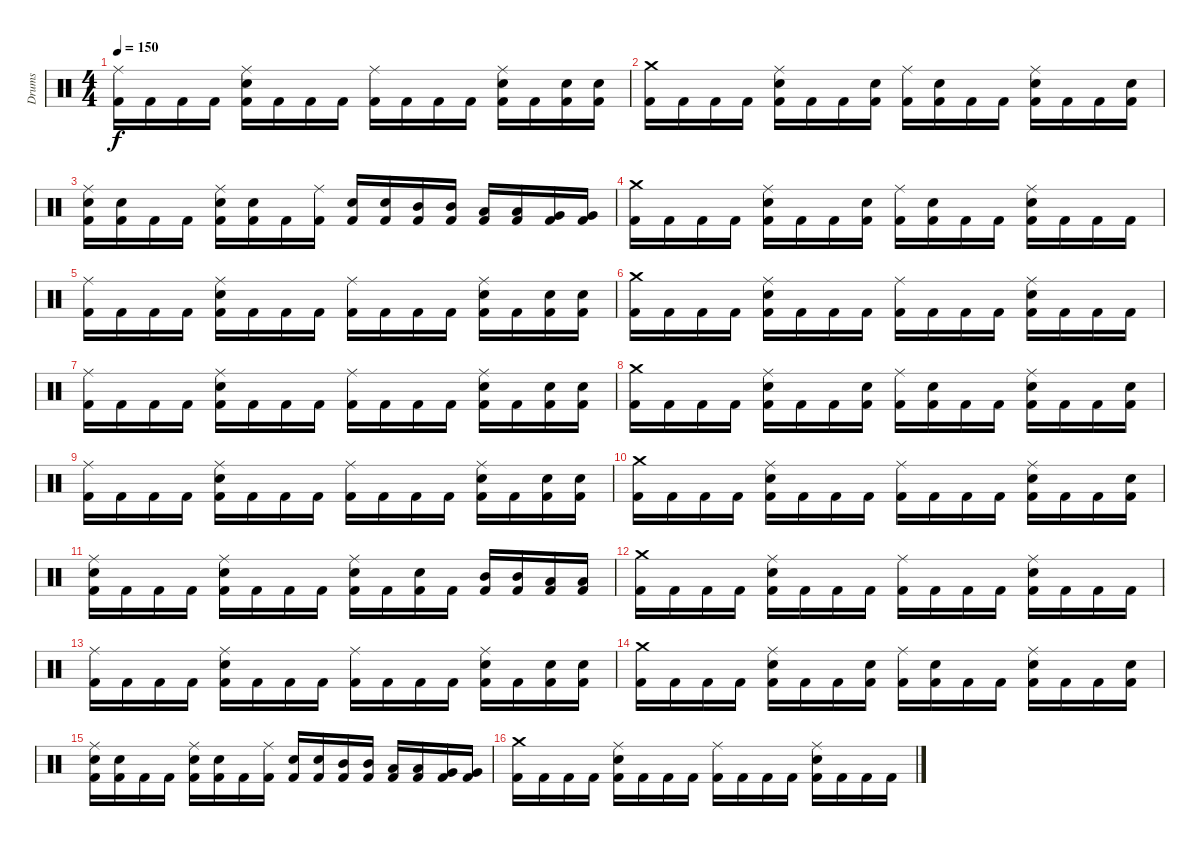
\track ("Drums" "Drums") {instrument percussion}
\staff {score}
\articulation defaults
\ts (4 4)
\tempo 150
\clef neutral
\ks c
("Ride (middle)" "Kick (hit) 2").16{dy f} "Kick (hit) 2".16 "Kick (hit) 2".16 "Kick (hit) 2".16 ("Ride (middle)" "Electric Snare (hit)" "Kick (hit) 2").16 "Kick (hit) 2".16 "Kick (hit) 2".16 "Kick (hit) 2".16 ("Ride (middle)" "Kick (hit) 2").16 "Kick (hit) 2".16 "Kick (hit) 2".16 "Kick (hit) 2".16 ("Ride (middle)" "Electric Snare (hit)" "Kick (hit) 2").16 "Kick (hit) 2".16 ("Electric Snare (hit)" "Kick (hit) 2").16 ("Electric Snare (hit)" "Kick (hit) 2").16 |
("Crash medium (hit)" "Kick (hit) 2").16 "Kick (hit) 2".16 "Kick (hit) 2".16 "Kick (hit) 2".16 ("Ride (middle)" "Electric Snare (hit)" "Kick (hit) 2").16 "Kick (hit) 2".16 "Kick (hit) 2".16 ("Electric Snare (hit)" "Kick (hit) 2").16 ("Ride (middle)" "Kick (hit) 2").16 ("Electric Snare (hit)" "Kick (hit) 2").16 "Kick (hit) 2".16 "Kick (hit) 2".16 ("Ride (middle)" "Electric Snare (hit)" "Kick (hit) 2").16 "Kick (hit) 2".16 "Kick (hit) 2".16 ("Electric Snare (hit)" "Kick (hit) 2").16 |
("Ride (middle)" "Electric Snare (hit)" "Kick (hit) 2").16 ("Electric Snare (hit)" "Kick (hit) 2").16 "Kick (hit) 2".16 "Kick (hit) 2".16 ("Ride (middle)" "Electric Snare (hit)" "Kick (hit) 2").16 ("Electric Snare (hit)" "Kick (hit) 2").16 "Kick (hit) 2".16 ("Ride (middle)" "Kick (hit) 2").16 ("Electric Snare (hit)" "Kick (hit) 2").16 ("Electric Snare (hit)" "Kick (hit) 2").16 ("Mid Tom (hit)" "Kick (hit) 2").16 ("Mid Tom (hit)" "Kick (hit) 2").16 ("Low Tom (hit)" "Kick (hit) 2").16 ("Low Tom (hit)" "Kick (hit) 2").16 ("Very Low Tom (hit)" "Kick (hit) 2").16 ("Very Low Tom (hit)" "Kick (hit) 2").16 |
("Crash medium (hit)" "Kick (hit) 2").16 "Kick (hit) 2".16 "Kick (hit) 2".16 "Kick (hit) 2".16 ("Ride (middle)" "Electric Snare (hit)" "Kick (hit) 2").16 "Kick (hit) 2".16 "Kick (hit) 2".16 ("Electric Snare (hit)" "Kick (hit) 2").16 ("Ride (middle)" "Kick (hit) 2").16 ("Electric Snare (hit)" "Kick (hit) 2").16 "Kick (hit) 2".16 "Kick (hit) 2".16 ("Ride (middle)" "Electric Snare (hit)" "Kick (hit) 2").16 "Kick (hit) 2".16 "Kick (hit) 2".16 "Kick (hit) 2".16 |
("Ride (middle)" "Kick (hit) 2").16 "Kick (hit) 2".16 "Kick (hit) 2".16 "Kick (hit) 2".16 ("Ride (middle)" "Electric Snare (hit)" "Kick (hit) 2").16 "Kick (hit) 2".16 "Kick (hit) 2".16 "Kick (hit) 2".16 ("Ride (middle)" "Kick (hit) 2").16 "Kick (hit) 2".16 "Kick (hit) 2".16 "Kick (hit) 2".16 ("Ride (middle)" "Electric Snare (hit)" "Kick (hit) 2").16 "Kick (hit) 2".16 ("Electric Snare (hit)" "Kick (hit) 2").16 ("Electric Snare (hit)" "Kick (hit) 2").16 |
("Crash medium (hit)" "Kick (hit) 2").16 "Kick (hit) 2".16 "Kick (hit) 2".16 "Kick (hit) 2".16 ("Ride (middle)" "Electric Snare (hit)" "Kick (hit) 2").16 "Kick (hit) 2".16 "Kick (hit) 2".16 "Kick (hit) 2".16 ("Ride (middle)" "Kick (hit) 2").16 "Kick (hit) 2".16 "Kick (hit) 2".16 "Kick (hit) 2".16 ("Ride (middle)" "Electric Snare (hit)" "Kick (hit) 2").16 "Kick (hit) 2".16 "Kick (hit) 2".16 "Kick (hit) 2".16 |
("Ride (middle)" "Kick (hit) 2").16 "Kick (hit) 2".16 "Kick (hit) 2".16 "Kick (hit) 2".16 ("Ride (middle)" "Electric Snare (hit)" "Kick (hit) 2").16 "Kick (hit) 2".16 "Kick (hit) 2".16 "Kick (hit) 2".16 ("Ride (middle)" "Kick (hit) 2").16 "Kick (hit) 2".16 "Kick (hit) 2".16 "Kick (hit) 2".16 ("Ride (middle)" "Electric Snare (hit)" "Kick (hit) 2").16 "Kick (hit) 2".16 ("Electric Snare (hit)" "Kick (hit) 2").16 ("Electric Snare (hit)" "Kick (hit) 2").16 |
("Crash medium (hit)" "Kick (hit) 2").16 "Kick (hit) 2".16 "Kick (hit) 2".16 "Kick (hit) 2".16 ("Ride (middle)" "Electric Snare (hit)" "Kick (hit) 2").16 "Kick (hit) 2".16 "Kick (hit) 2".16 ("Electric Snare (hit)" "Kick (hit) 2").16 ("Ride (middle)" "Kick (hit) 2").16 ("Electric Snare (hit)" "Kick (hit) 2").16 "Kick (hit) 2".16 "Kick (hit) 2".16 ("Ride (middle)" "Electric Snare (hit)" "Kick (hit) 2").16 "Kick (hit) 2".16 "Kick (hit) 2".16 ("Electric Snare (hit)" "Kick (hit) 2").16 |
("Ride (middle)" "Kick (hit) 2").16 "Kick (hit) 2".16 "Kick (hit) 2".16 "Kick (hit) 2".16 ("Ride (middle)" "Electric Snare (hit)" "Kick (hit) 2").16 "Kick (hit) 2".16 "Kick (hit) 2".16 "Kick (hit) 2".16 ("Ride (middle)" "Kick (hit) 2").16 "Kick (hit) 2".16 "Kick (hit) 2".16 "Kick (hit) 2".16 ("Ride (middle)" "Electric Snare (hit)" "Kick (hit) 2").16 "Kick (hit) 2".16 ("Electric Snare (hit)" "Kick (hit) 2").16 ("Electric Snare (hit)" "Kick (hit) 2").16 |
("Crash medium (hit)" "Kick (hit) 2").16 "Kick (hit) 2".16 "Kick (hit) 2".16 "Kick (hit) 2".16 ("Ride (middle)" "Electric Snare (hit)" "Kick (hit) 2").16 "Kick (hit) 2".16 "Kick (hit) 2".16 "Kick (hit) 2".16 ("Ride (middle)" "Kick (hit) 2").16 "Kick (hit) 2".16 "Kick (hit) 2".16 "Kick (hit) 2".16 ("Ride (middle)" "Electric Snare (hit)" "Kick (hit) 2").16 "Kick (hit) 2".16 "Kick (hit) 2".16 ("Electric Snare (hit)" "Kick (hit) 2").16 |
("Ride (middle)" "Electric Snare (hit)" "Kick (hit) 2").16 "Kick (hit) 2".16 "Kick (hit) 2".16 "Kick (hit) 2".16 ("Ride (middle)" "Electric Snare (hit)" "Kick (hit) 2").16 "Kick (hit) 2".16 "Kick (hit) 2".16 "Kick (hit) 2".16 ("Ride (middle)" "Electric Snare (hit)" "Kick (hit) 2").16 "Kick (hit) 2".16 ("Electric Snare (hit)" "Kick (hit) 2").16 "Kick (hit) 2".16 ("Mid Tom (hit)" "Kick (hit) 2").16 ("Mid Tom (hit)" "Kick (hit) 2").16 ("Low Tom (hit)" "Kick (hit) 2").16 ("Low Tom (hit)" "Kick (hit) 2").16 |
\section ("" "")
("Crash medium (hit)" "Kick (hit) 2").16 "Kick (hit) 2".16 "Kick (hit) 2".16 "Kick (hit) 2".16 ("Ride (middle)" "Electric Snare (hit)" "Kick (hit) 2").16 "Kick (hit) 2".16 "Kick (hit) 2".16 "Kick (hit) 2".16 ("Ride (middle)" "Kick (hit) 2").16 "Kick (hit) 2".16 "Kick (hit) 2".16 "Kick (hit) 2".16 ("Ride (middle)" "Electric Snare (hit)" "Kick (hit) 2").16 "Kick (hit) 2".16 "Kick (hit) 2".16 "Kick (hit) 2".16 |
("Ride (middle)" "Kick (hit) 2").16 "Kick (hit) 2".16 "Kick (hit) 2".16 "Kick (hit) 2".16 ("Ride (middle)" "Electric Snare (hit)" "Kick (hit) 2").16 "Kick (hit) 2".16 "Kick (hit) 2".16 "Kick (hit) 2".16 ("Ride (middle)" "Kick (hit) 2").16 "Kick (hit) 2".16 "Kick (hit) 2".16 "Kick (hit) 2".16 ("Ride (middle)" "Electric Snare (hit)" "Kick (hit) 2").16 "Kick (hit) 2".16 ("Electric Snare (hit)" "Kick (hit) 2").16 ("Electric Snare (hit)" "Kick (hit) 2").16 |
("Crash medium (hit)" "Kick (hit) 2").16 "Kick (hit) 2".16 "Kick (hit) 2".16 "Kick (hit) 2".16 ("Ride (middle)" "Electric Snare (hit)" "Kick (hit) 2").16 "Kick (hit) 2".16 "Kick (hit) 2".16 ("Electric Snare (hit)" "Kick (hit) 2").16 ("Ride (middle)" "Kick (hit) 2").16 ("Electric Snare (hit)" "Kick (hit) 2").16 "Kick (hit) 2".16 "Kick (hit) 2".16 ("Ride (middle)" "Electric Snare (hit)" "Kick (hit) 2").16 "Kick (hit) 2".16 "Kick (hit) 2".16 ("Electric Snare (hit)" "Kick (hit) 2").16 |
("Ride (middle)" "Electric Snare (hit)" "Kick (hit) 2").16 ("Electric Snare (hit)" "Kick (hit) 2").16 "Kick (hit) 2".16 "Kick (hit) 2".16 ("Ride (middle)" "Electric Snare (hit)" "Kick (hit) 2").16 ("Electric Snare (hit)" "Kick (hit) 2").16 "Kick (hit) 2".16 ("Ride (middle)" "Kick (hit) 2").16 ("Electric Snare (hit)" "Kick (hit) 2").16 ("Electric Snare (hit)" "Kick (hit) 2").16 ("Mid Tom (hit)" "Kick (hit) 2").16 ("Mid Tom (hit)" "Kick (hit) 2").16 ("Low Tom (hit)" "Kick (hit) 2").16 ("Low Tom (hit)" "Kick (hit) 2").16 ("Very Low Tom (hit)" "Kick (hit) 2").16 ("Very Low Tom (hit)" "Kick (hit) 2").16 |
("Crash medium (hit)" "Kick (hit) 2").16 "Kick (hit) 2".16 "Kick (hit) 2".16 "Kick (hit) 2".16 ("Ride (middle)" "Electric Snare (hit)" "Kick (hit) 2").16 "Kick (hit) 2".16 "Kick (hit) 2".16 "Kick (hit) 2".16 ("Ride (middle)" "Kick (hit) 2").16 "Kick (hit) 2".16 "Kick (hit) 2".16 "Kick (hit) 2".16 ("Ride (middle)" "Electric Snare (hit)" "Kick (hit) 2").16 "Kick (hit) 2".16 "Kick (hit) 2".16 "Kick (hit) 2".16
